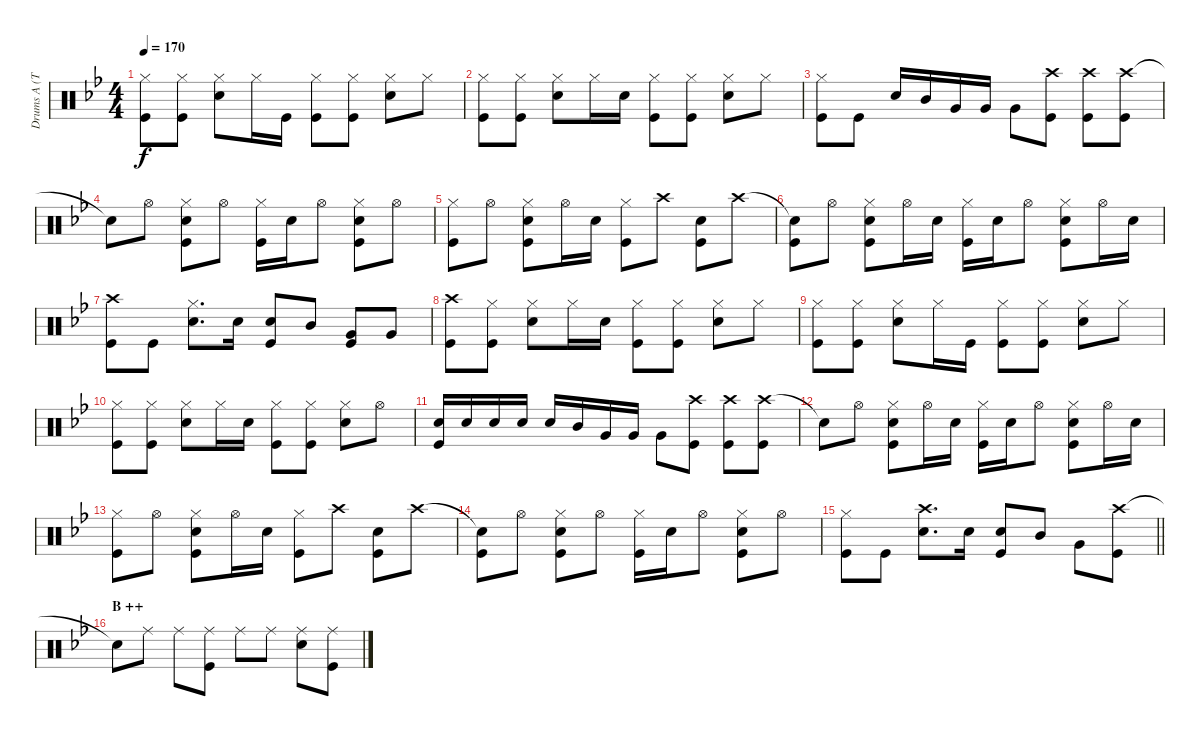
\track ("Drums A (Tainaka Ritsu)" "Drums A (T") {instrument percussion}
\staff {score}
\articulation defaults
\ts (4 4)
\tempo 170
\clef neutral
\ks bb
("Hi-Hat (closed)" "Kick (hit)").8{dy f} ("Hi-Hat (closed)" "Kick (hit)").8 ("Hi-Hat (closed)" "Snare (hit) 2").8 "Hi-Hat (closed)".16 "Kick (hit)".16 ("Hi-Hat (closed)" "Kick (hit)").8 ("Hi-Hat (closed)" "Kick (hit)").8 ("Hi-Hat (closed)" "Snare (hit) 2").8 "Hi-Hat (closed)".8 |
("Hi-Hat (closed)" "Kick (hit)").8 ("Hi-Hat (closed)" "Kick (hit)").8 ("Hi-Hat (closed)" "Snare (hit) 2").8 "Hi-Hat (closed)".16 "Snare (hit) 2".16 ("Hi-Hat (closed)" "Kick (hit)").8 ("Hi-Hat (closed)" "Kick (hit)").8 ("Hi-Hat (closed)" "Snare (hit) 2").8 "Hi-Hat (closed)".8 |
("Hi-Hat (closed)" "Kick (hit)").8 "Kick (hit)".8 "Snare (hit) 2".16 "Mid Tom (hit)".16 "Very Low Tom (hit)".16 "Very Low Tom (hit)".16 "Very Low Tom (hit)".8 ("Crash high (hit)" "Kick (hit)").8 ("Crash high (hit)" "Kick (hit)").8 ("Crash high (hit)" "Kick (hit)").8 |
"Snare (hit)"{t}.8 "Hi-Hat (open)".8 ("Hi-Hat (closed)" "Snare (hit) 2" "Kick (hit)").8 "Hi-Hat (open)".8 ("Hi-Hat (closed)" "Kick (hit)").16 "Snare (hit) 2".16 "Hi-Hat (open)".8 ("Hi-Hat (closed)" "Snare (hit) 2" "Kick (hit)").8 "Hi-Hat (open)".8 |
("Hi-Hat (closed)" "Kick (hit)").8 "Hi-Hat (open)".8 ("Hi-Hat (closed)" "Snare (hit) 2" "Kick (hit)").8 "Hi-Hat (open)".16 "Snare (hit) 2".16 ("Hi-Hat (closed)" "Kick (hit)").8 "Crash high (hit)".8 ("Snare (hit) 2" "Kick (hit)").8 "Crash high (hit)".8 |
("Snare (hit)"{t} "Kick (hit)").8 "Hi-Hat (open)".8 ("Hi-Hat (closed)" "Snare (hit) 2" "Kick (hit)").8 "Hi-Hat (open)".16 "Snare (hit) 2".16 ("Hi-Hat (closed)" "Kick (hit)").16 "Snare (hit) 2".16 "Hi-Hat (open)".8 ("Hi-Hat (closed)" "Snare (hit) 2" "Kick (hit)").8 "Hi-Hat (open)".16 "Snare (hit) 2".16 |
("Crash high (hit)" "Kick (hit)").8 "Kick (hit)".8 ("Hi-Hat (closed)" "Snare (hit) 2").8{d} "Snare (hit) 2".16 ("Snare (hit) 2" "Kick (hit)").8 "Mid Tom (hit)".8 ("Very Low Tom (hit)" "Kick (hit)").8 "Very Low Tom (hit)".8 |
("Crash high (hit)" "Kick (hit)").8 ("Hi-Hat (closed)" "Kick (hit)").8 ("Hi-Hat (closed)" "Snare (hit) 2").8 "Hi-Hat (closed)".16 "Snare (hit) 2".16 ("Hi-Hat (closed)" "Kick (hit)").8 ("Hi-Hat (closed)" "Kick (hit)").8 ("Hi-Hat (closed)" "Snare (hit) 2").8 "Hi-Hat (closed)".8 |
("Hi-Hat (closed)" "Kick (hit)").8 ("Hi-Hat (closed)" "Kick (hit)").8 ("Hi-Hat (closed)" "Snare (hit) 2").8 "Hi-Hat (closed)".16 "Kick (hit)".16 ("Hi-Hat (closed)" "Kick (hit)").8 ("Hi-Hat (closed)" "Kick (hit)").8 ("Hi-Hat (closed)" "Snare (hit) 2").8 "Hi-Hat (closed)".8 |
("Hi-Hat (closed)" "Kick (hit)").8 ("Hi-Hat (closed)" "Kick (hit)").8 ("Hi-Hat (closed)" "Snare (hit) 2").8 "Hi-Hat (closed)".16 "Snare (hit) 2".16 ("Hi-Hat (closed)" "Kick (hit)").8 ("Hi-Hat (closed)" "Kick (hit)").8 ("Hi-Hat (closed)" "Snare (hit) 2").8 "Hi-Hat (open)".8 |
("Snare (hit) 2" "Kick (hit)").16 "Snare (hit) 2".16 "Snare (hit) 2".16 "Snare (hit) 2".16 "Snare (hit) 2".16 "Mid Tom (hit)".16 "Very Low Tom (hit)".16 "Very Low Tom (hit)".16 "Very Low Tom (hit)".8 ("Crash high (hit)" "Kick (hit)").8 ("Crash high (hit)" "Kick (hit)").8 ("Crash high (hit)" "Kick (hit)").8 |
"Snare (hit)"{t}.8 "Hi-Hat (open)".8 ("Hi-Hat (closed)" "Snare (hit) 2" "Kick (hit)").8 "Hi-Hat (open)".16 "Snare (hit) 2".16 ("Hi-Hat (closed)" "Kick (hit)").16 "Snare (hit) 2".16 "Hi-Hat (open)".8 ("Hi-Hat (closed)" "Snare (hit) 2" "Kick (hit)").8 "Hi-Hat (open)".16 "Snare (hit) 2".16 |
("Hi-Hat (closed)" "Kick (hit)").8 "Hi-Hat (open)".8 ("Hi-Hat (closed)" "Snare (hit) 2" "Kick (hit)").8 "Hi-Hat (open)".16 "Snare (hit) 2".16 ("Hi-Hat (closed)" "Kick (hit)").8 "Crash high (hit)".8 ("Snare (hit) 2" "Kick (hit)").8 "Crash high (hit)".8 |
("Snare (hit)"{t} "Kick (hit)").8 "Hi-Hat (open)".8 ("Hi-Hat (closed)" "Snare (hit) 2" "Kick (hit)").8 "Hi-Hat (open)".8 ("Hi-Hat (closed)" "Kick (hit)").16 "Snare (hit) 2".16 "Hi-Hat (open)".8 ("Hi-Hat (closed)" "Snare (hit) 2" "Kick (hit)").8 "Hi-Hat (open)".8 |
\barLineRight lightlight
("Hi-Hat (closed)" "Kick (hit)").8 "Kick (hit)".8 ("Crash high (hit)" "Snare (hit) 2").8{d} "Snare (hit) 2".16 ("Snare (hit) 2" "Kick (hit)").8 "Mid Tom (hit)".8 "Very Low Tom (hit)".8 ("Crash high (hit)" "Kick (hit)").8 |
\section ("" "B ++")
"Snare (hit)"{t}.8 "Ride (middle)".8 "Ride (middle)".8 ("Ride (middle)" "Kick (hit)").8 "Ride (middle)".8 "Ride (middle)".8 ("Ride (middle)" "Snare (hit) 2").8 ("Ride (middle)" "Kick (hit)").8
